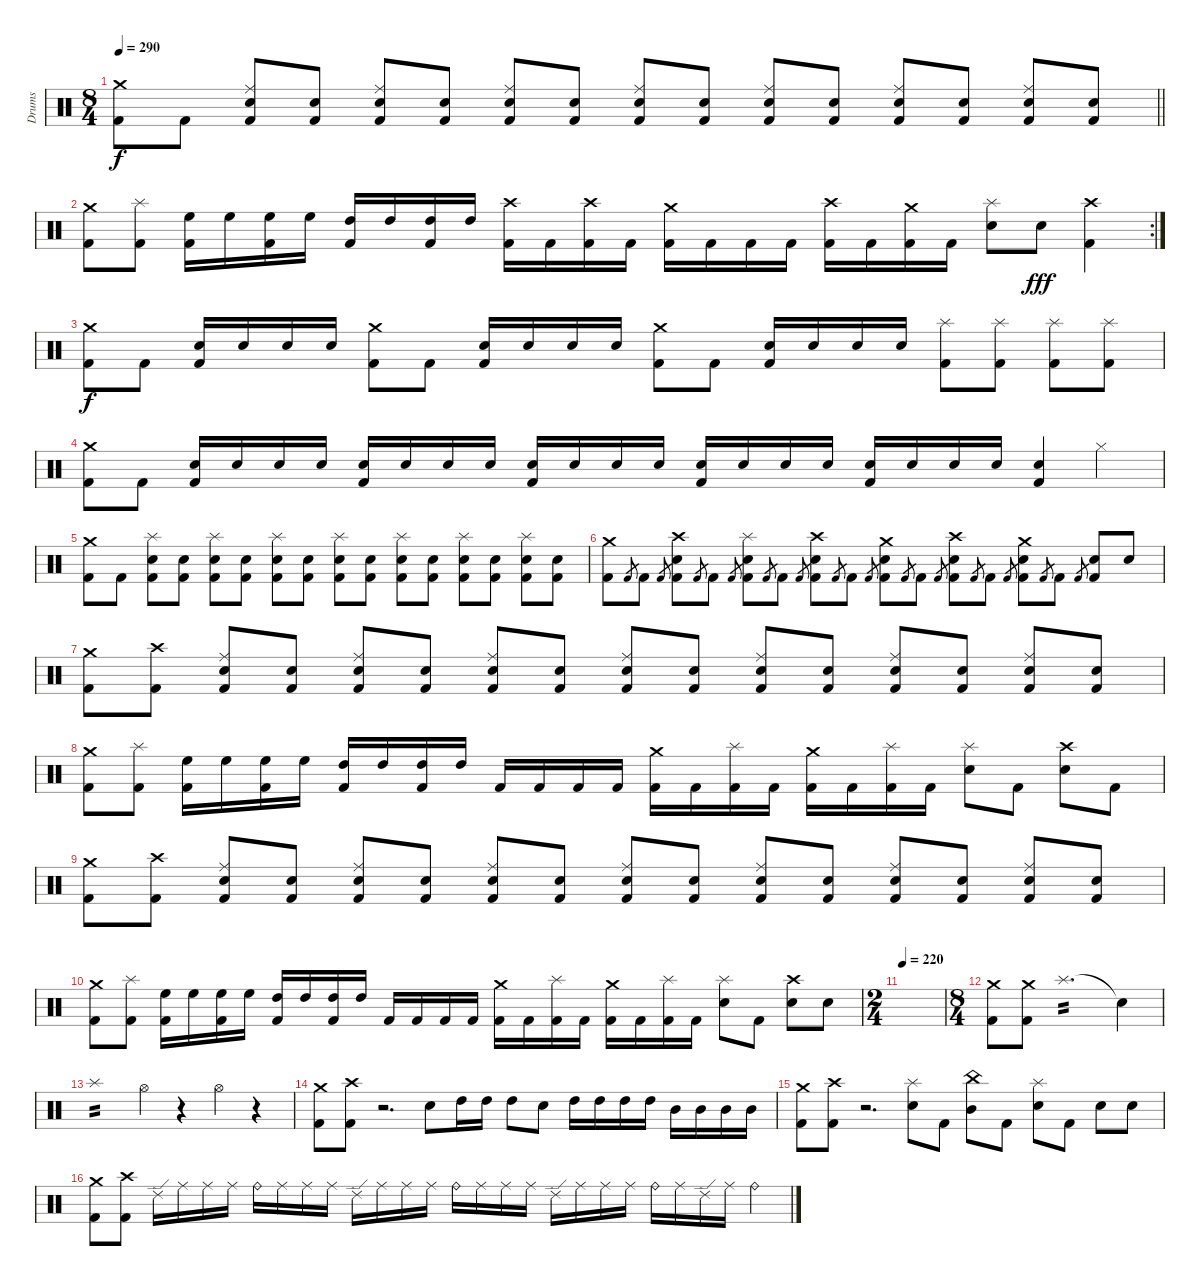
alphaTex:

\track ("Drums" "Drums") {instrument percussion}
\staff {score}
\articulation defaults
\ts (8 4)
\tempo 290
\clef neutral
\barLineRight lightlight
\ks c
("Crash medium (hit)" "Kick (hit) 2").8{dy f} "Kick (hit) 2".8 ("Ride (middle)" "Snare (hit) 2" "Kick (hit) 2").8 ("Snare (hit) 2" "Kick (hit) 2").8 ("Ride (middle)" "Snare (hit) 2" "Kick (hit) 2").8 ("Snare (hit) 2" "Kick (hit) 2").8 ("Ride (middle)" "Snare (hit) 2" "Kick (hit) 2").8 ("Snare (hit) 2" "Kick (hit) 2").8 ("Ride (middle)" "Snare (hit) 2" "Kick (hit) 2").8 ("Snare (hit) 2" "Kick (hit) 2").8 ("Ride (middle)" "Snare (hit) 2" "Kick (hit) 2").8 ("Snare (hit) 2" "Kick (hit) 2").8 ("Ride (middle)" "Snare (hit) 2" "Kick (hit) 2").8 ("Snare (hit) 2" "Kick (hit) 2").8 ("Ride (middle)" "Snare (hit) 2" "Kick (hit) 2").8 ("Snare (hit) 2" "Kick (hit) 2").8 |
\rc 2
("Crash medium (hit)" "Kick (hit) 2").8 ("Splash (hit)" "Kick (hit) 2").8 ("High Floor Tom (hit)" "Kick (hit) 2").16 "High Floor Tom (hit)".16 ("High Floor Tom (hit)" "Kick (hit) 2").16 "High Floor Tom (hit)".16 ("High Tom (hit)" "Kick (hit) 2").16 "High Tom (hit)".16 ("High Tom (hit)" "Kick (hit) 2").16 "High Tom (hit)".16 ("Crash high (hit)" "Kick (hit) 2").16 "Kick (hit) 2".16 ("Crash high (hit)" "Kick (hit) 2").16 "Kick (hit) 2".16 ("Crash medium (hit)" "Kick (hit) 2").16 "Kick (hit) 2".16 "Kick (hit) 2".16 "Kick (hit) 2".16 ("Crash high (hit)" "Kick (hit) 2").16 "Kick (hit) 2".16 ("Crash medium (hit)" "Kick (hit) 2").16 "Kick (hit) 2".16 ("Splash (hit)" "Snare (hit) 2").8 "Snare (hit) 2".8{dy fff} ("Crash high (hit)" "Kick (hit) 2").4 |
("Crash medium (hit)" "Kick (hit) 2").8{dy f} "Kick (hit) 2".8 ("Snare (hit) 2" "Kick (hit) 2").16 "Snare (hit) 2".16 "Snare (hit) 2".16 "Snare (hit) 2".16 ("Crash medium (hit)" "Kick (hit) 2").8 "Kick (hit) 2".8 ("Snare (hit) 2" "Kick (hit) 2").16 "Snare (hit) 2".16 "Snare (hit) 2".16 "Snare (hit) 2".16 ("Crash medium (hit)" "Kick (hit) 2").8 "Kick (hit) 2".8 ("Snare (hit) 2" "Kick (hit) 2").16 "Snare (hit) 2".16 "Snare (hit) 2".16 "Snare (hit) 2".16 ("Splash (hit)" "Kick (hit) 2").8 ("Splash (hit)" "Kick (hit) 2").8 ("Splash (hit)" "Kick (hit) 2").8 ("Splash (hit)" "Kick (hit) 2").8 |
("Crash medium (hit)" "Kick (hit) 2").8 "Kick (hit) 2".8 ("Snare (hit) 2" "Kick (hit) 2").16 "Snare (hit) 2".16 "Snare (hit) 2".16 "Snare (hit) 2".16 ("Snare (hit) 2" "Kick (hit) 2").16 "Snare (hit) 2".16 "Snare (hit) 2".16 "Snare (hit) 2".16 ("Snare (hit) 2" "Kick (hit) 2").16 "Snare (hit) 2".16 "Snare (hit) 2".16 "Snare (hit) 2".16 ("Snare (hit) 2" "Kick (hit) 2").16 "Snare (hit) 2".16 "Snare (hit) 2".16 "Snare (hit) 2".16 ("Snare (hit) 2" "Kick (hit) 2").16 "Snare (hit) 2".16 "Snare (hit) 2".16 "Snare (hit) 2".16 ("Snare (hit) 2" "Kick (hit) 2").4 "Hi-Hat (closed)".4 |
("Crash medium (hit)" "Kick (hit) 2").8 "Kick (hit) 2".8 ("Splash (hit)" "Snare (hit) 2" "Kick (hit) 2").8 ("Snare (hit) 2" "Kick (hit) 2").8 ("Splash (hit)" "Snare (hit) 2" "Kick (hit) 2").8 ("Snare (hit) 2" "Kick (hit) 2").8 ("Splash (hit)" "Snare (hit) 2" "Kick (hit) 2").8 ("Snare (hit) 2" "Kick (hit) 2").8 ("Splash (hit)" "Snare (hit) 2" "Kick (hit) 2").8 ("Snare (hit) 2" "Kick (hit) 2").8 ("Splash (hit)" "Snare (hit) 2" "Kick (hit) 2").8 ("Snare (hit) 2" "Kick (hit) 2").8 ("Splash (hit)" "Snare (hit) 2" "Kick (hit) 2").8 ("Snare (hit) 2" "Kick (hit) 2").8 ("Splash (hit)" "Snare (hit) 2" "Kick (hit) 2").8 ("Snare (hit) 2" "Kick (hit) 2").8 |
("Crash medium (hit)" "Kick (hit) 2").8 "Kick (hit) 2".8{gr} "Kick (hit) 2".8 "Kick (hit) 2".8{gr} ("Crash high (hit)" "Snare (hit) 2" "Kick (hit) 2").8 "Kick (hit) 2".8{gr} "Kick (hit) 2".8 "Kick (hit) 2".8{gr} ("Splash (hit)" "Snare (hit) 2" "Kick (hit) 2").8 "Kick (hit) 2".8{gr} "Kick (hit) 2".8 "Kick (hit) 2".8{gr} ("Crash high (hit)" "Snare (hit) 2" "Kick (hit) 2").8 "Kick (hit) 2".8{gr} "Kick (hit) 2".8 "Kick (hit) 2".8{gr} ("Crash medium (hit)" "Snare (hit) 2" "Kick (hit) 2").8 "Kick (hit) 2".8{gr} "Kick (hit) 2".8 "Kick (hit) 2".8{gr} ("Crash high (hit)" "Snare (hit) 2" "Kick (hit) 2").8 "Kick (hit) 2".8{gr} "Kick (hit) 2".8 "Kick (hit) 2".8{gr} ("Crash medium (hit)" "Snare (hit) 2" "Kick (hit) 2").8 "Kick (hit) 2".8{gr} "Kick (hit) 2".8 "Kick (hit) 2".8{gr} ("Snare (hit) 2" "Kick (hit) 2").8 "Snare (hit) 2".8 |
("Crash medium (hit)" "Kick (hit) 2").8 ("Crash high (hit)" "Kick (hit) 2").8 ("Ride (middle)" "Snare (hit) 2" "Kick (hit) 2").8 ("Snare (hit) 2" "Kick (hit) 2").8 ("Ride (middle)" "Snare (hit) 2" "Kick (hit) 2").8 ("Snare (hit) 2" "Kick (hit) 2").8 ("Ride (middle)" "Snare (hit) 2" "Kick (hit) 2").8 ("Snare (hit) 2" "Kick (hit) 2").8 ("Ride (middle)" "Snare (hit) 2" "Kick (hit) 2").8 ("Snare (hit) 2" "Kick (hit) 2").8 ("Ride (middle)" "Snare (hit) 2" "Kick (hit) 2").8 ("Snare (hit) 2" "Kick (hit) 2").8 ("Ride (middle)" "Snare (hit) 2" "Kick (hit) 2").8 ("Snare (hit) 2" "Kick (hit) 2").8 ("Ride (middle)" "Snare (hit) 2" "Kick (hit) 2").8 ("Snare (hit) 2" "Kick (hit) 2").8 |
("Crash medium (hit)" "Kick (hit) 2").8 ("Splash (hit)" "Kick (hit) 2").8 ("High Floor Tom (hit)" "Kick (hit) 2").16 "High Floor Tom (hit)".16 ("High Floor Tom (hit)" "Kick (hit) 2").16 "High Floor Tom (hit)".16 ("High Tom (hit)" "Kick (hit) 2").16 "High Tom (hit)".16 ("High Tom (hit)" "Kick (hit) 2").16 "High Tom (hit)".16 "Kick (hit) 2".16 "Kick (hit) 2".16 "Kick (hit) 2".16 "Kick (hit) 2".16 ("Crash medium (hit)" "Kick (hit) 2").16 "Kick (hit) 2".16 ("Splash (hit)" "Kick (hit) 2").16 "Kick (hit) 2".16 ("Crash medium (hit)" "Kick (hit) 2").16 "Kick (hit) 2".16 ("Splash (hit)" "Kick (hit) 2").16 "Kick (hit) 2".16 ("Splash (hit)" "Snare (hit) 2").8 "Kick (hit) 2".8 ("Crash high (hit)" "Snare (hit) 2").8 "Kick (hit) 2".8 |
("Crash medium (hit)" "Kick (hit) 2").8 ("Crash high (hit)" "Kick (hit) 2").8 ("Ride (middle)" "Snare (hit) 2" "Kick (hit) 2").8 ("Snare (hit) 2" "Kick (hit) 2").8 ("Ride (middle)" "Snare (hit) 2" "Kick (hit) 2").8 ("Snare (hit) 2" "Kick (hit) 2").8 ("Ride (middle)" "Snare (hit) 2" "Kick (hit) 2").8 ("Snare (hit) 2" "Kick (hit) 2").8 ("Ride (middle)" "Snare (hit) 2" "Kick (hit) 2").8 ("Snare (hit) 2" "Kick (hit) 2").8 ("Ride (middle)" "Snare (hit) 2" "Kick (hit) 2").8 ("Snare (hit) 2" "Kick (hit) 2").8 ("Ride (middle)" "Snare (hit) 2" "Kick (hit) 2").8 ("Snare (hit) 2" "Kick (hit) 2").8 ("Ride (middle)" "Snare (hit) 2" "Kick (hit) 2").8 ("Snare (hit) 2" "Kick (hit) 2").8 |
("Crash medium (hit)" "Kick (hit) 2").8 ("Splash (hit)" "Kick (hit) 2").8 ("High Floor Tom (hit)" "Kick (hit) 2").16 "High Floor Tom (hit)".16 ("High Floor Tom (hit)" "Kick (hit) 2").16 "High Floor Tom (hit)".16 ("High Tom (hit)" "Kick (hit) 2").16 "High Tom (hit)".16 ("High Tom (hit)" "Kick (hit) 2").16 "High Tom (hit)".16 "Kick (hit) 2".16 "Kick (hit) 2".16 "Kick (hit) 2".16 "Kick (hit) 2".16 ("Crash medium (hit)" "Kick (hit) 2").16 "Kick (hit) 2".16 ("Splash (hit)" "Kick (hit) 2").16 "Kick (hit) 2".16 ("Crash medium (hit)" "Kick (hit) 2").16 "Kick (hit) 2".16 ("Splash (hit)" "Kick (hit) 2").16 "Kick (hit) 2".16 ("Splash (hit)" "Snare (hit) 2").8 "Kick (hit) 2".8 ("Crash high (hit)" "Snare (hit) 2").8 "Snare (hit) 2".8 |
\ts (2 4)
\tempo 220
|
\ts (8 4)
("Crash medium (hit)" "Kick (hit) 2").8 ("Crash medium (hit)" "Kick (hit) 2").8 "Splash (hit)".1{d tp 2 volume 10} "Snare (hit)"{t}.4 |
"Splash (hit)".1{tp 2 volume 14} "Hi-Hat (open)".4 r.4 "Hi-Hat (open)".4 r.4 |
("Crash medium (hit)" "Kick (hit) 2").8 ("Crash high (hit)" "Kick (hit) 2").8 r.2{d} "Snare (hit) 2".8 "High Tom (hit)".16 "High Tom (hit)".16 "High Tom (hit)".8 "Snare (hit) 2".8 "High Tom (hit)".16 "High Tom (hit)".16 "High Tom (hit)".16 "High Tom (hit)".16 "Mid Tom (hit)".16 "Mid Tom (hit)".16 "Mid Tom (hit)".16 "Mid Tom (hit)".16 |
("Crash medium (hit)" "Kick (hit) 2").8 ("Crash high (hit)" "Kick (hit) 2").8 r.2{d} ("Splash (hit)" "Snare (hit) 2").8 "Kick (hit) 2".8 ("China (hit)" "Mid Tom (hit)").8 "Kick (hit) 2".8 ("Splash (hit)" "Snare (hit) 2").8 "Kick (hit) 2".8 "Snare (hit) 2".8 "Snare (hit) 2".8 |
("Crash medium (hit)" "Kick (hit) 2").8 ("Crash high (hit)" "Kick (hit) 2").8 "Ride (edge) 2".16 "Ride (middle)".16 "Ride (middle)".16 "Ride (middle)".16 "Ride (bell)".16 "Ride (middle)".16 "Ride (middle)".16 "Ride (middle)".16 "Ride (edge) 2".16 "Ride (middle)".16 "Ride (middle)".16 "Ride (middle)".16 "Ride (bell)".16 "Ride (middle)".16 "Ride (middle)".16 "Ride (middle)".16 "Ride (edge) 2".16 "Ride (middle)".16 "Ride (middle)".16 "Ride (middle)".16 "Ride (bell)".16 "Ride (middle)".16 "Ride (edge) 2".16 "Ride (middle)".16 "Ride (bell)".4
